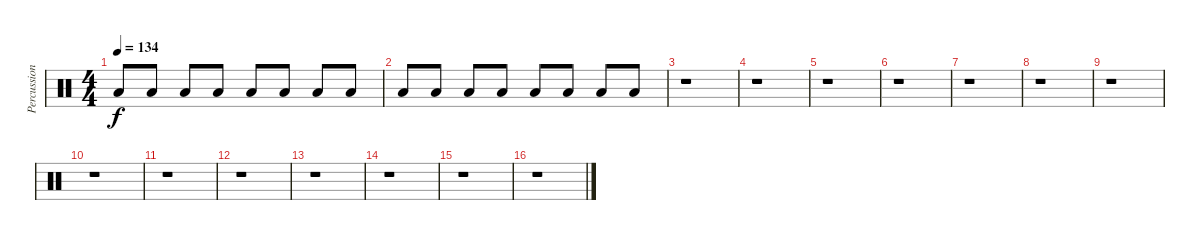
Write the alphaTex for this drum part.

\track ("Percussion" "Percussion") {instrument percussion}
\staff {score}
\articulation defaults
\ts (4 4)
\tempo 134
\clef neutral
\ks c "Low Tom (hit)".8{dy f} "Low Tom (hit)".8 "Low Tom (hit)".8 "Low Tom (hit)".8 "Low Tom (hit)".8 "Low Tom (hit)".8 "Low Tom (hit)".8 "Low Tom (hit)".8
|
"Low Tom (hit)".8 "Low Tom (hit)".8 "Low Tom (hit)".8 "Low Tom (hit)".8 "Low Tom (hit)".8 "Low Tom (hit)".8 "Low Tom (hit)".8 "Low Tom (hit)".8 |
r.1 |
r.1 |
r.1 |
r.1 |
r.1 |
r.1 |
r.1 |
r.1 |
r.1 |
r.1 |
r.1 |
r.1 |
r.1 |
r.1
